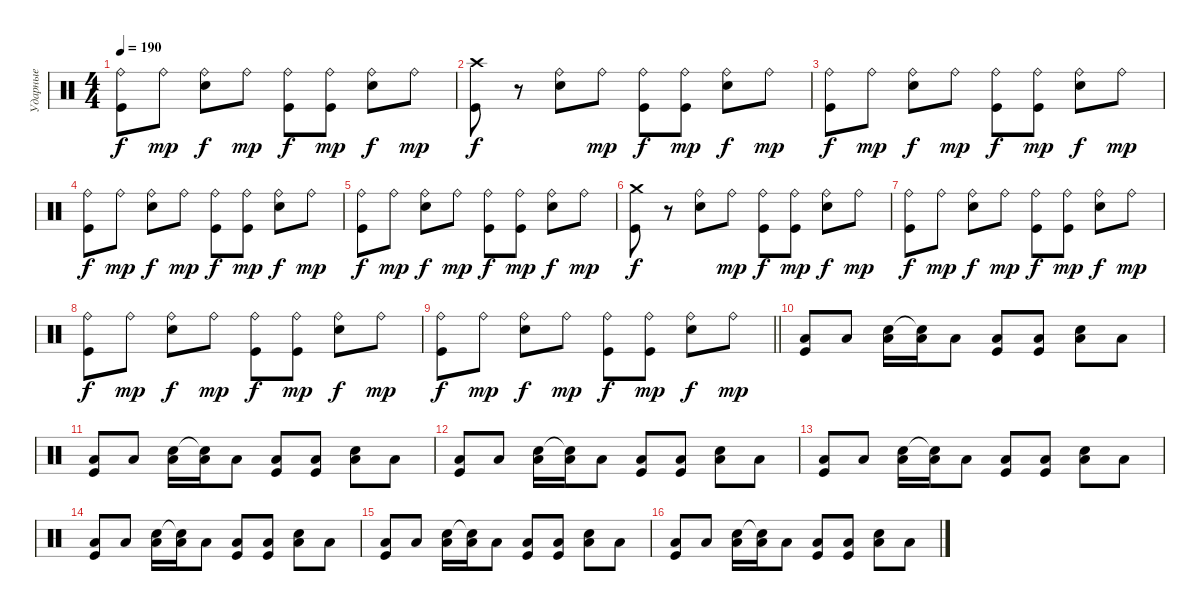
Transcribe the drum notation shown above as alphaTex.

\track ("Ударные" "Ударные") {instrument percussion}
\staff {score}
\articulation defaults
\ts (4 4)
\tempo 190
\clef neutral
\ks c
("Ride (bell)" "Kick (hit)").8{dy f} "Ride (bell)".8{dy mp} ("Ride (bell)" "Electric Snare (hit)").8{dy f} "Ride (bell)".8{dy mp} ("Ride (bell)" "Kick (hit)").8{dy f} ("Ride (bell)" "Kick (hit)").8{dy mp} ("Ride (bell)" "Electric Snare (hit)").8{dy f} "Ride (bell)".8{dy mp} |
("Crash high (hit)" "Kick (hit)").8{dy f} r.8 ("Ride (bell)" "Electric Snare (hit)").8 "Ride (bell)".8{dy mp} ("Ride (bell)" "Kick (hit)").8{dy f} ("Ride (bell)" "Kick (hit)").8{dy mp} ("Ride (bell)" "Electric Snare (hit)").8{dy f} "Ride (bell)".8{dy mp} |
("Ride (bell)" "Kick (hit)").8{dy f} "Ride (bell)".8{dy mp} ("Ride (bell)" "Electric Snare (hit)").8{dy f} "Ride (bell)".8{dy mp} ("Ride (bell)" "Kick (hit)").8{dy f} ("Ride (bell)" "Kick (hit)").8{dy mp} ("Ride (bell)" "Electric Snare (hit)").8{dy f} "Ride (bell)".8{dy mp} |
("Ride (bell)" "Kick (hit)").8{dy f} "Ride (bell)".8{dy mp} ("Ride (bell)" "Electric Snare (hit)").8{dy f} "Ride (bell)".8{dy mp} ("Ride (bell)" "Kick (hit)").8{dy f} ("Ride (bell)" "Kick (hit)").8{dy mp} ("Ride (bell)" "Electric Snare (hit)").8{dy f} "Ride (bell)".8{dy mp} |
("Ride (bell)" "Kick (hit)").8{dy f} "Ride (bell)".8{dy mp} ("Ride (bell)" "Electric Snare (hit)").8{dy f} "Ride (bell)".8{dy mp} ("Ride (bell)" "Kick (hit)").8{dy f} ("Ride (bell)" "Kick (hit)").8{dy mp} ("Ride (bell)" "Electric Snare (hit)").8{dy f} "Ride (bell)".8{dy mp} |
("Crash medium (hit)" "Kick (hit)").8{dy f} r.8 ("Ride (bell)" "Electric Snare (hit)").8 "Ride (bell)".8{dy mp} ("Ride (bell)" "Kick (hit)").8{dy f} ("Ride (bell)" "Kick (hit)").8{dy mp} ("Ride (bell)" "Electric Snare (hit)").8{dy f} "Ride (bell)".8{dy mp} |
("Ride (bell)" "Kick (hit)").8{dy f} "Ride (bell)".8{dy mp} ("Ride (bell)" "Electric Snare (hit)").8{dy f} "Ride (bell)".8{dy mp} ("Ride (bell)" "Kick (hit)").8{dy f} ("Ride (bell)" "Kick (hit)").8{dy mp} ("Ride (bell)" "Electric Snare (hit)").8{dy f} "Ride (bell)".8{dy mp} |
("Ride (bell)" "Kick (hit)").8{dy f} "Ride (bell)".8{dy mp} ("Ride (bell)" "Electric Snare (hit)").8{dy f} "Ride (bell)".8{dy mp} ("Ride (bell)" "Kick (hit)").8{dy f} ("Ride (bell)" "Kick (hit)").8{dy mp} ("Ride (bell)" "Electric Snare (hit)").8{dy f} "Ride (bell)".8{dy mp} |
\barLineRight lightlight
("Ride (bell)" "Kick (hit)").8{dy f} "Ride (bell)".8{dy mp} ("Ride (bell)" "Electric Snare (hit)").8{dy f} "Ride (bell)".8{dy mp} ("Ride (bell)" "Kick (hit)").8{dy f} ("Ride (bell)" "Kick (hit)").8{dy mp} ("Ride (bell)" "Electric Snare (hit)").8{dy f} "Ride (bell)".8{dy mp} |
\section ("" " ")
("Low Tom (hit)" "Kick (hit)").8 "Low Tom (hit)".8 ("Low Tom (hit)" "Electric Snare (hit)").16 ("Low Tom (hit)" "Snare (hit)"{t}).16 "Low Tom (hit)".8 ("Low Tom (hit)" "Kick (hit)").8 ("Low Tom (hit)" "Kick (hit)").8 ("Low Tom (hit)" "Electric Snare (hit)").8 "Low Tom (hit)".8 |
("Low Tom (hit)" "Kick (hit)").8 "Low Tom (hit)".8 ("Low Tom (hit)" "Electric Snare (hit)").16 ("Low Tom (hit)" "Snare (hit)"{t}).16 "Low Tom (hit)".8 ("Low Tom (hit)" "Kick (hit)").8 ("Low Tom (hit)" "Kick (hit)").8 ("Low Tom (hit)" "Electric Snare (hit)").8 "Low Tom (hit)".8 |
("Low Tom (hit)" "Kick (hit)").8 "Low Tom (hit)".8 ("Low Tom (hit)" "Electric Snare (hit)").16 ("Low Tom (hit)" "Snare (hit)"{t}).16 "Low Tom (hit)".8 ("Low Tom (hit)" "Kick (hit)").8 ("Low Tom (hit)" "Kick (hit)").8 ("Low Tom (hit)" "Electric Snare (hit)").8 "Low Tom (hit)".8 |
("Low Tom (hit)" "Kick (hit)").8 "Low Tom (hit)".8 ("Low Tom (hit)" "Electric Snare (hit)").16 ("Low Tom (hit)" "Snare (hit)"{t}).16 "Low Tom (hit)".8 ("Low Tom (hit)" "Kick (hit)").8 ("Low Tom (hit)" "Kick (hit)").8 ("Low Tom (hit)" "Electric Snare (hit)").8 "Low Tom (hit)".8 |
("Low Tom (hit)" "Kick (hit)").8 "Low Tom (hit)".8 ("Low Tom (hit)" "Electric Snare (hit)").16 ("Low Tom (hit)" "Snare (hit)"{t}).16 "Low Tom (hit)".8 ("Low Tom (hit)" "Kick (hit)").8 ("Low Tom (hit)" "Kick (hit)").8 ("Low Tom (hit)" "Electric Snare (hit)").8 "Low Tom (hit)".8 |
("Low Tom (hit)" "Kick (hit)").8 "Low Tom (hit)".8 ("Low Tom (hit)" "Electric Snare (hit)").16 ("Low Tom (hit)" "Snare (hit)"{t}).16 "Low Tom (hit)".8 ("Low Tom (hit)" "Kick (hit)").8 ("Low Tom (hit)" "Kick (hit)").8 ("Low Tom (hit)" "Electric Snare (hit)").8 "Low Tom (hit)".8 |
("Low Tom (hit)" "Kick (hit)").8 "Low Tom (hit)".8 ("Low Tom (hit)" "Electric Snare (hit)").16 ("Low Tom (hit)" "Snare (hit)"{t}).16 "Low Tom (hit)".8 ("Low Tom (hit)" "Kick (hit)").8 ("Low Tom (hit)" "Kick (hit)").8 ("Low Tom (hit)" "Electric Snare (hit)").8 "Low Tom (hit)".8
